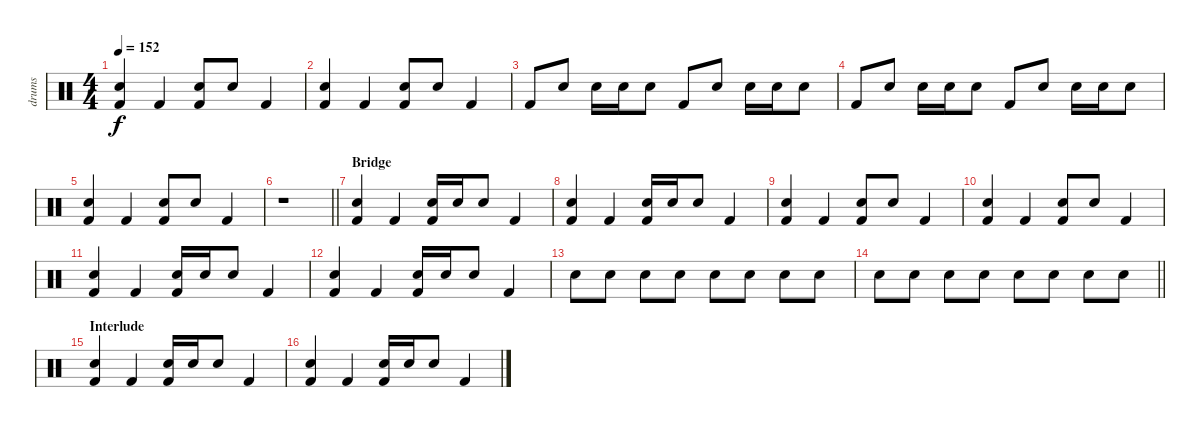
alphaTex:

\track ("drums" "drums") {instrument percussion}
\staff {score}
\articulation defaults
\ts (4 4)
\tempo 152
\clef neutral
\ks c
("Snare (hit) 2" "Kick (hit) 2").4{dy f} "Kick (hit) 2".4 ("Snare (hit) 2" "Kick (hit) 2").8 "Snare (hit) 2".8 "Kick (hit) 2".4 |
("Snare (hit) 2" "Kick (hit) 2").4 "Kick (hit) 2".4 ("Snare (hit) 2" "Kick (hit) 2").8 "Snare (hit) 2".8 "Kick (hit) 2".4 |
"Kick (hit) 2".8 "Snare (hit) 2".8 "Snare (hit) 2".16 "Snare (hit) 2".16 "Snare (hit) 2".8 "Kick (hit) 2".8 "Snare (hit) 2".8 "Snare (hit) 2".16 "Snare (hit) 2".16 "Snare (hit) 2".8 |
"Kick (hit) 2".8 "Snare (hit) 2".8 "Snare (hit) 2".16 "Snare (hit) 2".16 "Snare (hit) 2".8 "Kick (hit) 2".8 "Snare (hit) 2".8 "Snare (hit) 2".16 "Snare (hit) 2".16 "Snare (hit) 2".8 |
("Snare (hit) 2" "Kick (hit) 2").4 "Kick (hit) 2".4 ("Snare (hit) 2" "Kick (hit) 2").8 "Snare (hit) 2".8 "Kick (hit) 2".4 |
\barLineRight lightlight
r.1 |
\section ("" "Bridge")
("Snare (hit) 2" "Kick (hit) 2").4 "Kick (hit) 2".4 ("Snare (hit) 2" "Kick (hit) 2").16 "Snare (hit) 2".16 "Snare (hit) 2".8 "Kick (hit) 2".4 |
("Snare (hit) 2" "Kick (hit) 2").4 "Kick (hit) 2".4 ("Snare (hit) 2" "Kick (hit) 2").16 "Snare (hit) 2".16 "Snare (hit) 2".8 "Kick (hit) 2".4 |
("Snare (hit) 2" "Kick (hit) 2").4 "Kick (hit) 2".4 ("Snare (hit) 2" "Kick (hit) 2").8 "Snare (hit) 2".8 "Kick (hit) 2".4 |
("Snare (hit) 2" "Kick (hit) 2").4 "Kick (hit) 2".4 ("Snare (hit) 2" "Kick (hit) 2").8 "Snare (hit) 2".8 "Kick (hit) 2".4 |
("Snare (hit) 2" "Kick (hit) 2").4 "Kick (hit) 2".4 ("Snare (hit) 2" "Kick (hit) 2").16 "Snare (hit) 2".16 "Snare (hit) 2".8 "Kick (hit) 2".4 |
("Snare (hit) 2" "Kick (hit) 2").4 "Kick (hit) 2".4 ("Snare (hit) 2" "Kick (hit) 2").16 "Snare (hit) 2".16 "Snare (hit) 2".8 "Kick (hit) 2".4 |
"Snare (hit) 2".8{volume 4} "Snare (hit) 2".8{volume 13} "Snare (hit) 2".8 "Snare (hit) 2".8 "Snare (hit) 2".8 "Snare (hit) 2".8 "Snare (hit) 2".8 "Snare (hit) 2".8 |
\barLineRight lightlight "Snare (hit) 2".8 "Snare (hit) 2".8 "Snare (hit) 2".8 "Snare (hit) 2".8 "Snare (hit) 2".8 "Snare (hit) 2".8 "Snare (hit) 2".8 "Snare (hit) 2".8
|
\section ("" "Interlude")
("Snare (hit) 2" "Kick (hit) 2").4 "Kick (hit) 2".4 ("Snare (hit) 2" "Kick (hit) 2").16 "Snare (hit) 2".16 "Snare (hit) 2".8 "Kick (hit) 2".4 |
("Snare (hit) 2" "Kick (hit) 2").4 "Kick (hit) 2".4 ("Snare (hit) 2" "Kick (hit) 2").16 "Snare (hit) 2".16 "Snare (hit) 2".8 "Kick (hit) 2".4
